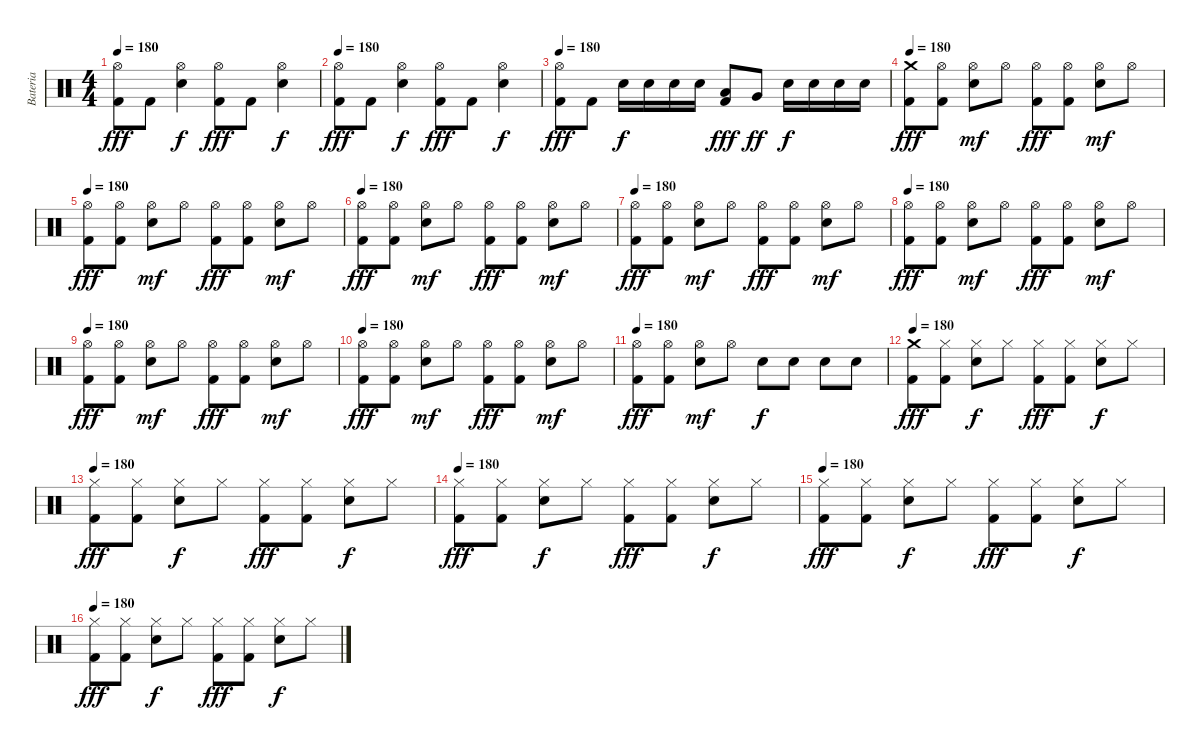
\track ("Bateria" "Bateria") {instrument percussion}
\staff {score}
\articulation defaults
\ts (4 4)
\tempo 180
\clef neutral
\ks c
("Hi-Hat (open)" "Kick (hit) 2").8{dy fff} "Kick (hit) 2".8 ("Hi-Hat (open)" "Electric Snare (hit)").4{dy f} ("Hi-Hat (open)" "Kick (hit) 2").8{dy fff} "Kick (hit) 2".8 ("Hi-Hat (open)" "Electric Snare (hit)").4{dy f} |
\tempo 180
("Hi-Hat (open)" "Kick (hit) 2").8{dy fff} "Kick (hit) 2".8 ("Hi-Hat (open)" "Electric Snare (hit)").4{dy f} ("Hi-Hat (open)" "Kick (hit) 2").8{dy fff} "Kick (hit) 2".8 ("Hi-Hat (open)" "Electric Snare (hit)").4{dy f} |
\tempo 180
("Hi-Hat (open)" "Kick (hit) 2").8{dy fff} "Kick (hit) 2".8 "Electric Snare (hit)".16{dy f} "Electric Snare (hit)".16 "Electric Snare (hit)".16 "Electric Snare (hit)".16 ("Low Tom (hit)" "Kick (hit) 2").8{dy fff} "Very Low Tom (hit)".8{dy ff} "Electric Snare (hit)".16{dy f} "Electric Snare (hit)".16 "Electric Snare (hit)".16 "Electric Snare (hit)".16 |
\tempo 180
("Crash medium (hit)" "Kick (hit) 2").8{dy fff} ("Hi-Hat (open)" "Kick (hit) 2").8 ("Hi-Hat (open)" "Electric Snare (hit)").8{dy mf} "Hi-Hat (open)".8 ("Hi-Hat (open)" "Kick (hit) 2").8{dy fff} ("Hi-Hat (open)" "Kick (hit) 2").8 ("Hi-Hat (open)" "Electric Snare (hit)").8{dy mf} "Hi-Hat (open)".8 |
\tempo 180
("Hi-Hat (open)" "Kick (hit) 2").8{dy fff} ("Hi-Hat (open)" "Kick (hit) 2").8 ("Hi-Hat (open)" "Electric Snare (hit)").8{dy mf} "Hi-Hat (open)".8 ("Hi-Hat (open)" "Kick (hit) 2").8{dy fff} ("Hi-Hat (open)" "Kick (hit) 2").8 ("Hi-Hat (open)" "Electric Snare (hit)").8{dy mf} "Hi-Hat (open)".8 |
\tempo 180
("Hi-Hat (open)" "Kick (hit) 2").8{dy fff} ("Hi-Hat (open)" "Kick (hit) 2").8 ("Hi-Hat (open)" "Electric Snare (hit)").8{dy mf} "Hi-Hat (open)".8 ("Hi-Hat (open)" "Kick (hit) 2").8{dy fff} ("Hi-Hat (open)" "Kick (hit) 2").8 ("Hi-Hat (open)" "Electric Snare (hit)").8{dy mf} "Hi-Hat (open)".8 |
\tempo 180
("Hi-Hat (open)" "Kick (hit) 2").8{dy fff} ("Hi-Hat (open)" "Kick (hit) 2").8 ("Hi-Hat (open)" "Electric Snare (hit)").8{dy mf} "Hi-Hat (open)".8 ("Hi-Hat (open)" "Kick (hit) 2").8{dy fff} ("Hi-Hat (open)" "Kick (hit) 2").8 ("Hi-Hat (open)" "Electric Snare (hit)").8{dy mf} "Hi-Hat (open)".8 |
\tempo 180
("Hi-Hat (open)" "Kick (hit) 2").8{dy fff} ("Hi-Hat (open)" "Kick (hit) 2").8 ("Hi-Hat (open)" "Electric Snare (hit)").8{dy mf} "Hi-Hat (open)".8 ("Hi-Hat (open)" "Kick (hit) 2").8{dy fff} ("Hi-Hat (open)" "Kick (hit) 2").8 ("Hi-Hat (open)" "Electric Snare (hit)").8{dy mf} "Hi-Hat (open)".8 |
\tempo 180
("Hi-Hat (open)" "Kick (hit) 2").8{dy fff} ("Hi-Hat (open)" "Kick (hit) 2").8 ("Hi-Hat (open)" "Electric Snare (hit)").8{dy mf} "Hi-Hat (open)".8 ("Hi-Hat (open)" "Kick (hit) 2").8{dy fff} ("Hi-Hat (open)" "Kick (hit) 2").8 ("Hi-Hat (open)" "Electric Snare (hit)").8{dy mf} "Hi-Hat (open)".8 |
\tempo 180
("Hi-Hat (open)" "Kick (hit) 2").8{dy fff} ("Hi-Hat (open)" "Kick (hit) 2").8 ("Hi-Hat (open)" "Electric Snare (hit)").8{dy mf} "Hi-Hat (open)".8 ("Hi-Hat (open)" "Kick (hit) 2").8{dy fff} ("Hi-Hat (open)" "Kick (hit) 2").8 ("Hi-Hat (open)" "Electric Snare (hit)").8{dy mf} "Hi-Hat (open)".8 |
\tempo 180
("Hi-Hat (open)" "Kick (hit) 2").8{dy fff} ("Hi-Hat (open)" "Kick (hit) 2").8 ("Hi-Hat (open)" "Electric Snare (hit)").8{dy mf} "Hi-Hat (open)".8 "Electric Snare (hit)".8{dy f} "Electric Snare (hit)".8 "Electric Snare (hit)".8 "Electric Snare (hit)".8 |
\tempo 180
("Crash medium (hit)" "Kick (hit) 2").8{dy fff} ("Hi-Hat (closed)" "Kick (hit) 2").8 ("Hi-Hat (closed)" "Electric Snare (hit)").8{dy f} "Hi-Hat (closed)".8 ("Hi-Hat (closed)" "Kick (hit) 2").8{dy fff} ("Hi-Hat (closed)" "Kick (hit) 2").8 ("Hi-Hat (closed)" "Electric Snare (hit)").8{dy f} "Hi-Hat (closed)".8 |
\tempo 180
("Hi-Hat (closed)" "Kick (hit) 2").8{dy fff} ("Hi-Hat (closed)" "Kick (hit) 2").8 ("Hi-Hat (closed)" "Electric Snare (hit)").8{dy f} "Hi-Hat (closed)".8 ("Hi-Hat (closed)" "Kick (hit) 2").8{dy fff} ("Hi-Hat (closed)" "Kick (hit) 2").8 ("Hi-Hat (closed)" "Electric Snare (hit)").8{dy f} "Hi-Hat (closed)".8 |
\tempo 180
("Hi-Hat (closed)" "Kick (hit) 2").8{dy fff} ("Hi-Hat (closed)" "Kick (hit) 2").8 ("Hi-Hat (closed)" "Electric Snare (hit)").8{dy f} "Hi-Hat (closed)".8 ("Hi-Hat (closed)" "Kick (hit) 2").8{dy fff} ("Hi-Hat (closed)" "Kick (hit) 2").8 ("Hi-Hat (closed)" "Electric Snare (hit)").8{dy f} "Hi-Hat (closed)".8 |
\tempo 180
("Hi-Hat (closed)" "Kick (hit) 2").8{dy fff} ("Hi-Hat (closed)" "Kick (hit) 2").8 ("Hi-Hat (closed)" "Electric Snare (hit)").8{dy f} "Hi-Hat (closed)".8 ("Hi-Hat (closed)" "Kick (hit) 2").8{dy fff} ("Hi-Hat (closed)" "Kick (hit) 2").8 ("Hi-Hat (closed)" "Electric Snare (hit)").8{dy f} "Hi-Hat (closed)".8 |
\tempo 180
("Hi-Hat (closed)" "Kick (hit) 2").8{dy fff} ("Hi-Hat (closed)" "Kick (hit) 2").8 ("Hi-Hat (closed)" "Electric Snare (hit)").8{dy f} "Hi-Hat (closed)".8 ("Hi-Hat (closed)" "Kick (hit) 2").8{dy fff} ("Hi-Hat (closed)" "Kick (hit) 2").8 ("Hi-Hat (closed)" "Electric Snare (hit)").8{dy f} "Hi-Hat (closed)".8
